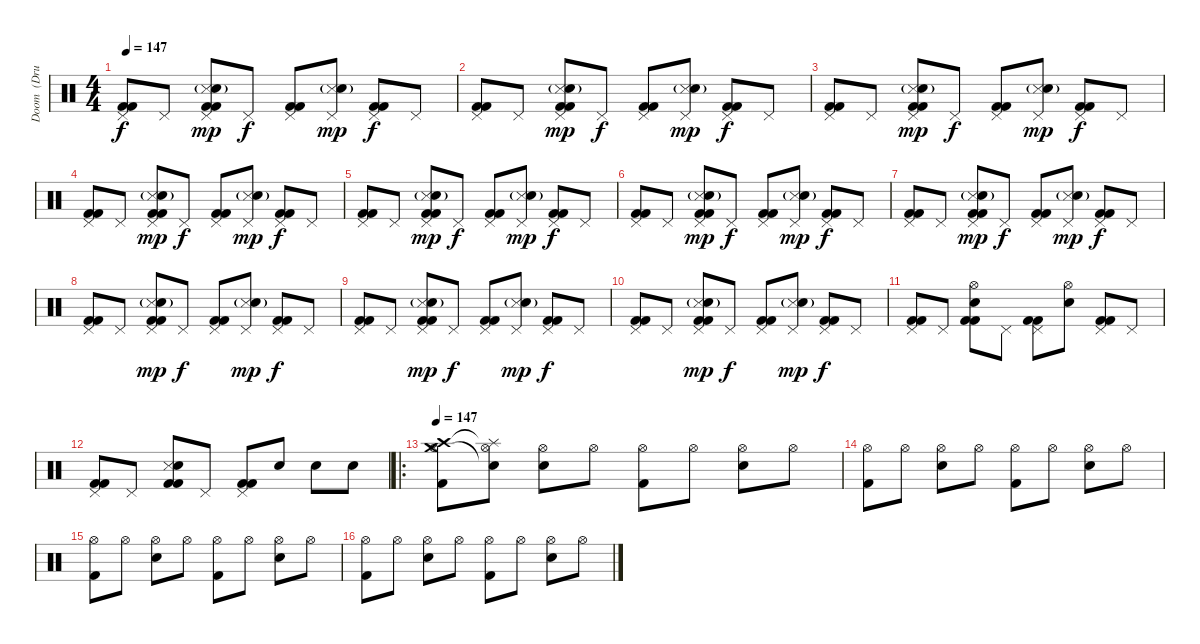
\track ("Doom  (Drums)" "Doom  (Dru") {instrument percussion}
\staff {score}
\articulation defaults
\ts (4 4)
\tempo 147
\clef neutral
\ks c
("Pedal Hi-Hat (hit)" "Kick (hit) 2" "Kick (hit) 2").8{dy f} "Pedal Hi-Hat (hit)".8 ("Pedal Hi-Hat (hit)" "Snare (side stick) 3" "Electric Snare (hit)"{g} "Kick (hit) 2" "Kick (hit) 2").8{dy mp} "Pedal Hi-Hat (hit)".8{dy f} ("Pedal Hi-Hat (hit)" "Kick (hit) 2" "Kick (hit) 2").8 ("Pedal Hi-Hat (hit)" "Snare (side stick) 3" "Electric Snare (hit)"{g}).8{dy mp} ("Pedal Hi-Hat (hit)" "Kick (hit) 2" "Kick (hit) 2").8{dy f} "Pedal Hi-Hat (hit)".8 |
("Pedal Hi-Hat (hit)" "Kick (hit) 2" "Kick (hit) 2").8 "Pedal Hi-Hat (hit)".8 ("Pedal Hi-Hat (hit)" "Snare (side stick) 3" "Electric Snare (hit)"{g} "Kick (hit) 2" "Kick (hit) 2").8{dy mp} "Pedal Hi-Hat (hit)".8{dy f} ("Pedal Hi-Hat (hit)" "Kick (hit) 2" "Kick (hit) 2").8 ("Pedal Hi-Hat (hit)" "Snare (side stick) 3" "Electric Snare (hit)"{g}).8{dy mp} ("Pedal Hi-Hat (hit)" "Kick (hit) 2" "Kick (hit) 2").8{dy f} "Pedal Hi-Hat (hit)".8 |
("Pedal Hi-Hat (hit)" "Kick (hit) 2" "Kick (hit) 2").8 "Pedal Hi-Hat (hit)".8 ("Pedal Hi-Hat (hit)" "Snare (side stick) 3" "Electric Snare (hit)"{g} "Kick (hit) 2" "Kick (hit) 2").8{dy mp} "Pedal Hi-Hat (hit)".8{dy f} ("Pedal Hi-Hat (hit)" "Kick (hit) 2" "Kick (hit) 2").8 ("Pedal Hi-Hat (hit)" "Snare (side stick) 3" "Electric Snare (hit)"{g}).8{dy mp} ("Pedal Hi-Hat (hit)" "Kick (hit) 2" "Kick (hit) 2").8{dy f} "Pedal Hi-Hat (hit)".8 |
("Pedal Hi-Hat (hit)" "Kick (hit) 2" "Kick (hit) 2").8 "Pedal Hi-Hat (hit)".8 ("Pedal Hi-Hat (hit)" "Snare (side stick) 3" "Electric Snare (hit)"{g} "Kick (hit) 2" "Kick (hit) 2").8{dy mp} "Pedal Hi-Hat (hit)".8{dy f} ("Pedal Hi-Hat (hit)" "Kick (hit) 2" "Kick (hit) 2").8 ("Pedal Hi-Hat (hit)" "Snare (side stick) 3" "Electric Snare (hit)"{g}).8{dy mp} ("Pedal Hi-Hat (hit)" "Kick (hit) 2" "Kick (hit) 2").8{dy f} "Pedal Hi-Hat (hit)".8 |
("Pedal Hi-Hat (hit)" "Kick (hit) 2" "Kick (hit) 2").8 "Pedal Hi-Hat (hit)".8 ("Pedal Hi-Hat (hit)" "Snare (side stick) 3" "Electric Snare (hit)"{g} "Kick (hit) 2" "Kick (hit) 2").8{dy mp} "Pedal Hi-Hat (hit)".8{dy f} ("Pedal Hi-Hat (hit)" "Kick (hit) 2" "Kick (hit) 2").8 ("Pedal Hi-Hat (hit)" "Snare (side stick) 3" "Electric Snare (hit)"{g}).8{dy mp} ("Pedal Hi-Hat (hit)" "Kick (hit) 2" "Kick (hit) 2").8{dy f} "Pedal Hi-Hat (hit)".8 |
("Pedal Hi-Hat (hit)" "Kick (hit) 2" "Kick (hit) 2").8 "Pedal Hi-Hat (hit)".8 ("Pedal Hi-Hat (hit)" "Snare (side stick) 3" "Electric Snare (hit)"{g} "Kick (hit) 2" "Kick (hit) 2").8{dy mp} "Pedal Hi-Hat (hit)".8{dy f} ("Pedal Hi-Hat (hit)" "Kick (hit) 2" "Kick (hit) 2").8 ("Pedal Hi-Hat (hit)" "Snare (side stick) 3" "Electric Snare (hit)"{g}).8{dy mp} ("Pedal Hi-Hat (hit)" "Kick (hit) 2" "Kick (hit) 2").8{dy f} "Pedal Hi-Hat (hit)".8 |
("Pedal Hi-Hat (hit)" "Kick (hit) 2" "Kick (hit) 2").8 "Pedal Hi-Hat (hit)".8 ("Pedal Hi-Hat (hit)" "Snare (side stick) 3" "Electric Snare (hit)"{g} "Kick (hit) 2" "Kick (hit) 2").8{dy mp} "Pedal Hi-Hat (hit)".8{dy f} ("Pedal Hi-Hat (hit)" "Kick (hit) 2" "Kick (hit) 2").8 ("Pedal Hi-Hat (hit)" "Snare (side stick) 3" "Electric Snare (hit)"{g}).8{dy mp} ("Pedal Hi-Hat (hit)" "Kick (hit) 2" "Kick (hit) 2").8{dy f} "Pedal Hi-Hat (hit)".8 |
("Pedal Hi-Hat (hit)" "Kick (hit) 2" "Kick (hit) 2").8 "Pedal Hi-Hat (hit)".8 ("Pedal Hi-Hat (hit)" "Snare (side stick) 3" "Electric Snare (hit)"{g} "Kick (hit) 2" "Kick (hit) 2").8{dy mp} "Pedal Hi-Hat (hit)".8{dy f} ("Pedal Hi-Hat (hit)" "Kick (hit) 2" "Kick (hit) 2").8 ("Pedal Hi-Hat (hit)" "Snare (side stick) 3" "Electric Snare (hit)"{g}).8{dy mp} ("Pedal Hi-Hat (hit)" "Kick (hit) 2" "Kick (hit) 2").8{dy f} "Pedal Hi-Hat (hit)".8 |
("Pedal Hi-Hat (hit)" "Kick (hit) 2" "Kick (hit) 2").8 "Pedal Hi-Hat (hit)".8 ("Pedal Hi-Hat (hit)" "Snare (side stick) 3" "Electric Snare (hit)"{g} "Kick (hit) 2" "Kick (hit) 2").8{dy mp} "Pedal Hi-Hat (hit)".8{dy f} ("Pedal Hi-Hat (hit)" "Kick (hit) 2" "Kick (hit) 2").8 ("Pedal Hi-Hat (hit)" "Snare (side stick) 3" "Electric Snare (hit)"{g}).8{dy mp} ("Pedal Hi-Hat (hit)" "Kick (hit) 2" "Kick (hit) 2").8{dy f} "Pedal Hi-Hat (hit)".8 |
("Pedal Hi-Hat (hit)" "Kick (hit) 2" "Kick (hit) 2").8 "Pedal Hi-Hat (hit)".8 ("Pedal Hi-Hat (hit)" "Snare (side stick) 3" "Electric Snare (hit)"{g} "Kick (hit) 2" "Kick (hit) 2").8{dy mp} "Pedal Hi-Hat (hit)".8{dy f} ("Pedal Hi-Hat (hit)" "Kick (hit) 2" "Kick (hit) 2").8 ("Pedal Hi-Hat (hit)" "Snare (side stick) 3" "Electric Snare (hit)"{g}).8{dy mp} ("Pedal Hi-Hat (hit)" "Kick (hit) 2" "Kick (hit) 2").8{dy f} "Pedal Hi-Hat (hit)".8 |
("Pedal Hi-Hat (hit)" "Kick (hit) 2" "Kick (hit) 2").8 "Pedal Hi-Hat (hit)".8 ("Hi-Hat (open)" "Electric Snare (hit)" "Kick (hit) 2" "Kick (hit) 2").8 "Pedal Hi-Hat (hit)".8 ("Pedal Hi-Hat (hit)" "Kick (hit) 2" "Kick (hit) 2").8 ("Hi-Hat (open)" "Electric Snare (hit)").8 ("Pedal Hi-Hat (hit)" "Kick (hit) 2" "Kick (hit) 2").8 "Pedal Hi-Hat (hit)".8 |
("Pedal Hi-Hat (hit)" "Kick (hit) 2" "Kick (hit) 2").8 "Pedal Hi-Hat (hit)".8 ("Snare (side stick) 3" "Electric Snare (hit)" "Kick (hit) 2" "Kick (hit) 2").8 "Pedal Hi-Hat (hit)".8 ("Pedal Hi-Hat (hit)" "Kick (hit) 2" "Kick (hit) 2").8 "Electric Snare (hit)".8 "Electric Snare (hit)".8 "Electric Snare (hit)".8 |
\ro
\tempo 147
("Crash high (hit)" "Hi-Hat (open)" "Crash medium (hit)" "Kick (hit) 2").8 ("Splash (hit)"{t} "Hi-Hat (open)" "Snare (hit)"{t}).8 ("Hi-Hat (open)" "Electric Snare (hit)").8 "Hi-Hat (open)".8 ("Hi-Hat (open)" "Kick (hit) 2").8 "Hi-Hat (open)".8 ("Hi-Hat (open)" "Electric Snare (hit)").8 "Hi-Hat (open)".8 |
("Hi-Hat (open)" "Kick (hit) 2").8 "Hi-Hat (open)".8 ("Hi-Hat (open)" "Electric Snare (hit)").8 "Hi-Hat (open)".8 ("Hi-Hat (open)" "Kick (hit) 2").8 "Hi-Hat (open)".8 ("Hi-Hat (open)" "Electric Snare (hit)").8 "Hi-Hat (open)".8 |
("Hi-Hat (open)" "Kick (hit) 2").8 "Hi-Hat (open)".8 ("Hi-Hat (open)" "Electric Snare (hit)").8 "Hi-Hat (open)".8 ("Hi-Hat (open)" "Kick (hit) 2").8 "Hi-Hat (open)".8 ("Hi-Hat (open)" "Electric Snare (hit)").8 "Hi-Hat (open)".8 |
("Hi-Hat (open)" "Kick (hit) 2").8 "Hi-Hat (open)".8 ("Hi-Hat (open)" "Electric Snare (hit)").8 "Hi-Hat (open)".8 ("Hi-Hat (open)" "Kick (hit) 2").8 "Hi-Hat (open)".8 ("Hi-Hat (open)" "Electric Snare (hit)").8 "Hi-Hat (open)".8
